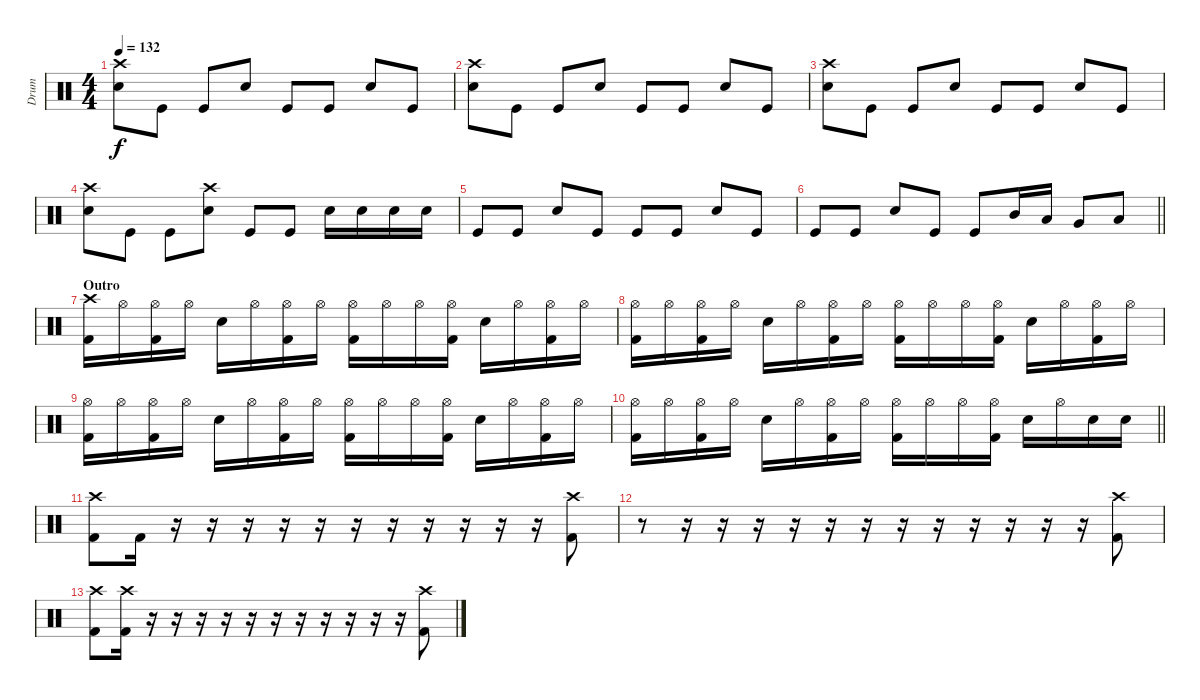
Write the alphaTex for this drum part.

\track ("Drum" "Drum") {instrument percussion}
\staff {score}
\articulation defaults
\ts (4 4)
\tempo 132
\clef neutral
\ks c
("Crash high (hit)" "Snare (hit) 2").8{dy f} "Kick (hit)".8 "Kick (hit)".8 "Snare (hit) 2".8 "Kick (hit)".8 "Kick (hit)".8 "Snare (hit) 2".8 "Kick (hit)".8 |
("Crash high (hit)" "Snare (hit) 2").8 "Kick (hit)".8 "Kick (hit)".8 "Snare (hit) 2".8 "Kick (hit)".8 "Kick (hit)".8 "Snare (hit) 2".8 "Kick (hit)".8 |
("Crash high (hit)" "Snare (hit) 2").8 "Kick (hit)".8 "Kick (hit)".8 "Snare (hit) 2".8 "Kick (hit)".8 "Kick (hit)".8 "Snare (hit) 2".8 "Kick (hit)".8 |
("Crash high (hit)" "Snare (hit) 2").8 "Kick (hit)".8 "Kick (hit)".8 ("Crash high (hit)" "Snare (hit) 2").8 "Kick (hit)".8 "Kick (hit)".8 "Snare (hit) 2".16 "Snare (hit) 2".16 "Snare (hit) 2".16 "Snare (hit) 2".16 |
"Kick (hit)".8 "Kick (hit)".8 "Snare (hit) 2".8 "Kick (hit)".8 "Kick (hit)".8 "Kick (hit)".8 "Snare (hit) 2".8 "Kick (hit)".8 |
\barLineRight lightlight "Kick (hit)".8 "Kick (hit)".8 "Snare (hit) 2".8 "Kick (hit)".8 "Kick (hit)".8 "Mid Tom (hit)".16 "Low Tom (hit)".16 "Very Low Tom (hit)".8 "Low Floor Tom (hit)".8
|
\section ("" "Outro")
("Crash high (hit)" "Kick (hit) 2").16 "Hi-Hat (open)".16 ("Hi-Hat (open)" "Kick (hit) 2").16 "Hi-Hat (open)".16 "Snare (hit) 2".16 "Hi-Hat (open)".16 ("Hi-Hat (open)" "Kick (hit) 2").16 "Hi-Hat (open)".16 ("Hi-Hat (open)" "Kick (hit) 2").16 "Hi-Hat (open)".16 "Hi-Hat (open)".16 ("Hi-Hat (open)" "Kick (hit) 2").16 "Snare (hit) 2".16 "Hi-Hat (open)".16 ("Hi-Hat (open)" "Kick (hit) 2").16 "Hi-Hat (open)".16 |
("Hi-Hat (open)" "Kick (hit) 2").16 "Hi-Hat (open)".16 ("Hi-Hat (open)" "Kick (hit) 2").16 "Hi-Hat (open)".16 "Snare (hit) 2".16 "Hi-Hat (open)".16 ("Hi-Hat (open)" "Kick (hit) 2").16 "Hi-Hat (open)".16 ("Hi-Hat (open)" "Kick (hit) 2").16 "Hi-Hat (open)".16 "Hi-Hat (open)".16 ("Hi-Hat (open)" "Kick (hit) 2").16 "Snare (hit) 2".16 "Hi-Hat (open)".16 ("Hi-Hat (open)" "Kick (hit) 2").16 "Hi-Hat (open)".16 |
("Hi-Hat (open)" "Kick (hit) 2").16 "Hi-Hat (open)".16 ("Hi-Hat (open)" "Kick (hit) 2").16 "Hi-Hat (open)".16 "Snare (hit) 2".16 "Hi-Hat (open)".16 ("Hi-Hat (open)" "Kick (hit) 2").16 "Hi-Hat (open)".16 ("Hi-Hat (open)" "Kick (hit) 2").16 "Hi-Hat (open)".16 "Hi-Hat (open)".16 ("Hi-Hat (open)" "Kick (hit) 2").16 "Snare (hit) 2".16 "Hi-Hat (open)".16 ("Hi-Hat (open)" "Kick (hit) 2").16 "Hi-Hat (open)".16 |
\barLineRight lightlight
("Hi-Hat (open)" "Kick (hit) 2").16 "Hi-Hat (open)".16 ("Hi-Hat (open)" "Kick (hit) 2").16 "Hi-Hat (open)".16 "Snare (hit) 2".16 "Hi-Hat (open)".16 ("Hi-Hat (open)" "Kick (hit) 2").16 "Hi-Hat (open)".16 ("Hi-Hat (open)" "Kick (hit) 2").16 "Hi-Hat (open)".16 "Hi-Hat (open)".16 ("Hi-Hat (open)" "Kick (hit) 2").16 "Snare (hit) 2".16 "Hi-Hat (open)".16 "Snare (hit) 2".16 "Snare (hit) 2".16 |
("Crash high (hit)" "Kick (hit) 2").8 "Kick (hit) 2".16 r.16 r.16 r.16 r.16 r.16 r.16 r.16 r.16 r.16 r.16 r.16 ("Crash high (hit)" "Kick (hit) 2").8 |
r.8 r.16 r.16 r.16 r.16 r.16 r.16 r.16 r.16 r.16 r.16 r.16 r.16 ("Crash high (hit)" "Kick (hit) 2").8 |
("Crash high (hit)" "Kick (hit) 2").8 ("Crash high (hit)" "Kick (hit) 2").16 r.16 r.16 r.16 r.16 r.16 r.16 r.16 r.16 r.16 r.16 r.16 ("Crash high (hit)" "Kick (hit) 2").8
